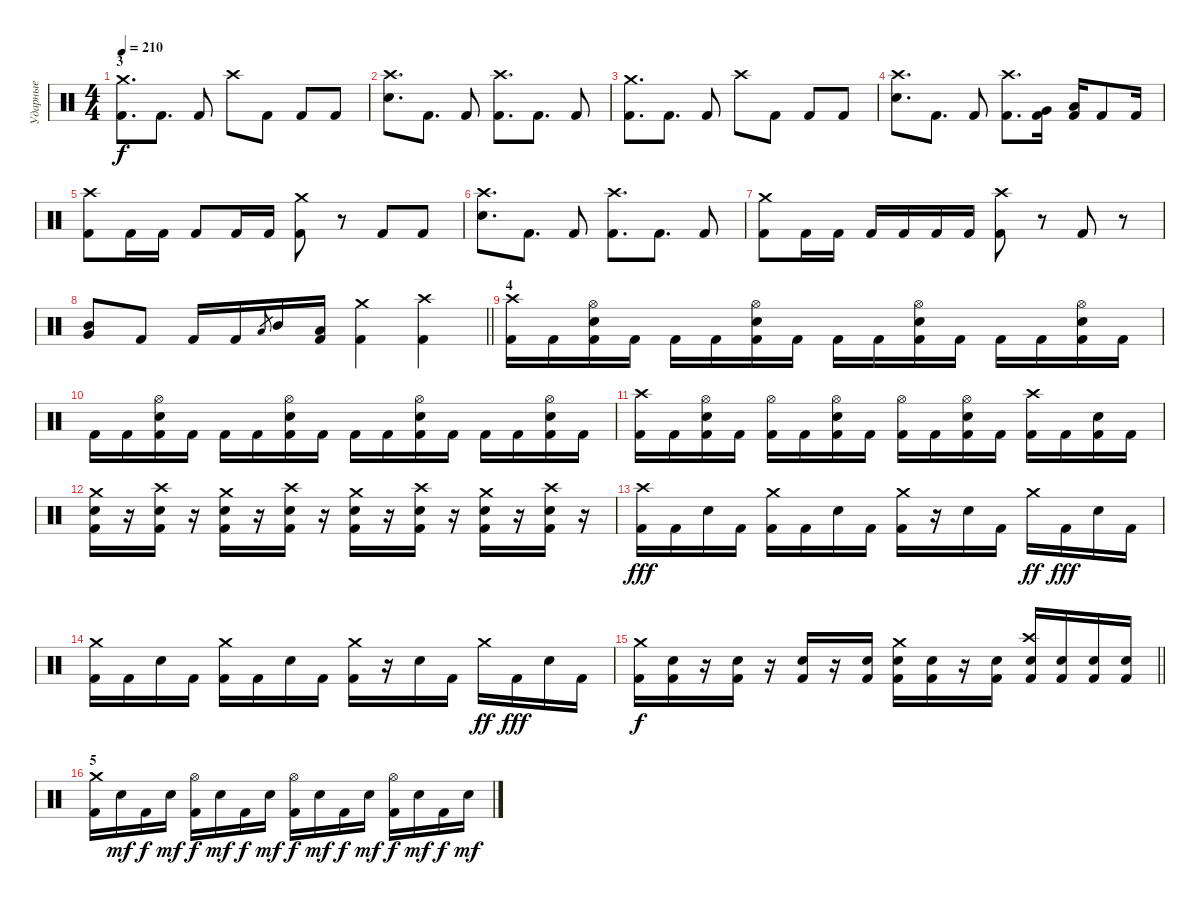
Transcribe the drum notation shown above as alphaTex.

\track ("Ударные" "Ударные") {instrument percussion}
\staff {score}
\articulation defaults
\ts (4 4)
\section ("" "3")
\tempo 210
\clef neutral
\ks c
("Crash medium (hit)" "Kick (hit) 2").8{d dy f} "Kick (hit) 2".8{d} "Kick (hit) 2".8 "Crash high (hit)".8 "Kick (hit) 2".8 "Kick (hit) 2".8 "Kick (hit) 2".8 |
("Crash high (hit)" "Snare (hit) 2").8{d} "Kick (hit) 2".8{d} "Kick (hit) 2".8 ("Crash high (hit)" "Kick (hit) 2").8{d} "Kick (hit) 2".8{d} "Kick (hit) 2".8 |
("Crash medium (hit)" "Kick (hit) 2").8{d} "Kick (hit) 2".8{d} "Kick (hit) 2".8 "Crash high (hit)".8 "Kick (hit) 2".8 "Kick (hit) 2".8 "Kick (hit) 2".8 |
("Crash high (hit)" "Snare (hit) 2").8{d} "Kick (hit) 2".8{d} "Kick (hit) 2".8 ("Crash high (hit)" "Kick (hit) 2").8{d} ("Very Low Tom (hit)" "Kick (hit) 2").16 ("Low Floor Tom (hit)" "Kick (hit) 2").16 "Kick (hit) 2".8 "Kick (hit) 2".16 |
("Crash high (hit)" "Kick (hit) 2").8 "Kick (hit) 2".16 "Kick (hit) 2".16 "Kick (hit) 2".8 "Kick (hit) 2".16 "Kick (hit) 2".16 ("Crash medium (hit)" "Kick (hit) 2").8 r.8 "Kick (hit) 2".8 "Kick (hit) 2".8 |
("Crash high (hit)" "Snare (hit) 2").8{d} "Kick (hit) 2".8{d} "Kick (hit) 2".8 ("Crash high (hit)" "Kick (hit) 2").8{d} "Kick (hit) 2".8{d} "Kick (hit) 2".8 |
("Crash medium (hit)" "Kick (hit) 2").8 "Kick (hit) 2".16 "Kick (hit) 2".16 "Kick (hit) 2".16 "Kick (hit) 2".16 "Kick (hit) 2".16 "Kick (hit) 2".16 ("Crash high (hit)" "Kick (hit) 2").8 r.8 "Kick (hit) 2".8 r.8 |
\barLineRight lightlight
("Mid Tom (hit)" "Very Low Tom (hit)").8 "Kick (hit) 2".8 "Kick (hit) 2".16 "Kick (hit) 2".16 "Low Tom (hit)".8{gr} "Mid Tom (hit)".16 ("Low Tom (hit)" "Kick (hit) 2").16 ("Crash medium (hit)" "Kick (hit) 2").4 ("Crash high (hit)" "Kick (hit) 2").4 |
\section ("" "4")
("Crash high (hit)" "Kick (hit) 2").16 "Kick (hit) 2".16 ("Hi-Hat (open)" "Snare (hit) 2" "Kick (hit) 2").16 "Kick (hit) 2".16 "Kick (hit) 2".16 "Kick (hit) 2".16 ("Hi-Hat (open)" "Snare (hit) 2" "Kick (hit) 2").16 "Kick (hit) 2".16 "Kick (hit) 2".16 "Kick (hit) 2".16 ("Hi-Hat (open)" "Snare (hit) 2" "Kick (hit) 2").16 "Kick (hit) 2".16 "Kick (hit) 2".16 "Kick (hit) 2".16 ("Hi-Hat (open)" "Snare (hit) 2" "Kick (hit) 2").16 "Kick (hit) 2".16 |
"Kick (hit) 2".16 "Kick (hit) 2".16 ("Hi-Hat (open)" "Snare (hit) 2" "Kick (hit) 2").16 "Kick (hit) 2".16 "Kick (hit) 2".16 "Kick (hit) 2".16 ("Hi-Hat (open)" "Snare (hit) 2" "Kick (hit) 2").16 "Kick (hit) 2".16 "Kick (hit) 2".16 "Kick (hit) 2".16 ("Hi-Hat (open)" "Snare (hit) 2" "Kick (hit) 2").16 "Kick (hit) 2".16 "Kick (hit) 2".16 "Kick (hit) 2".16 ("Hi-Hat (open)" "Snare (hit) 2" "Kick (hit) 2").16 "Kick (hit) 2".16 |
("Crash high (hit)" "Kick (hit) 2").16 "Kick (hit) 2".16 ("Hi-Hat (open)" "Snare (hit) 2" "Kick (hit) 2").16 "Kick (hit) 2".16 ("Hi-Hat (open)" "Kick (hit) 2").16 "Kick (hit) 2".16 ("Hi-Hat (open)" "Snare (hit) 2" "Kick (hit) 2").16 "Kick (hit) 2".16 ("Hi-Hat (open)" "Kick (hit) 2").16 "Kick (hit) 2".16 ("Hi-Hat (open)" "Snare (hit) 2" "Kick (hit) 2").16 "Kick (hit) 2".16 ("Crash high (hit)" "Kick (hit) 2").16 "Kick (hit) 2".16 ("Snare (hit) 2" "Kick (hit) 2").16 "Kick (hit) 2".16 |
("Crash medium (hit)" "Snare (hit) 2" "Kick (hit) 2").16 r.16 ("Crash high (hit)" "Snare (hit) 2" "Kick (hit) 2").16 r.16 ("Crash medium (hit)" "Snare (hit) 2" "Kick (hit) 2").16 r.16 ("Crash high (hit)" "Snare (hit) 2" "Kick (hit) 2").16 r.16 ("Crash medium (hit)" "Snare (hit) 2" "Kick (hit) 2").16 r.16 ("Crash high (hit)" "Snare (hit) 2" "Kick (hit) 2").16 r.16 ("Crash medium (hit)" "Snare (hit) 2" "Kick (hit) 2").16 r.16 ("Crash high (hit)" "Snare (hit) 2" "Kick (hit) 2").16 r.16 |
("Crash high (hit)" "Kick (hit) 2").16{dy fff} "Kick (hit) 2".16 "Snare (hit) 2".16 "Kick (hit) 2".16 ("Crash medium (hit)" "Kick (hit) 2").16 "Kick (hit) 2".16 "Snare (hit) 2".16 "Kick (hit) 2".16 ("Crash medium (hit)" "Kick (hit) 2").16 r.16 "Snare (hit) 2".16 "Kick (hit) 2".16 "Crash medium (hit)".16{dy ff} "Kick (hit) 2".16{dy fff} "Snare (hit) 2".16 "Kick (hit) 2".16 |
("Crash medium (hit)" "Kick (hit) 2").16 "Kick (hit) 2".16 "Snare (hit) 2".16 "Kick (hit) 2".16 ("Crash medium (hit)" "Kick (hit) 2").16 "Kick (hit) 2".16 "Snare (hit) 2".16 "Kick (hit) 2".16 ("Crash medium (hit)" "Kick (hit) 2").16 r.16 "Snare (hit) 2".16 "Kick (hit) 2".16 "Crash medium (hit)".16{dy ff} "Kick (hit) 2".16{dy fff} "Snare (hit) 2".16 "Kick (hit) 2".16 |
\barLineRight lightlight
("Crash medium (hit)" "Kick (hit) 2").16{dy f} ("Snare (hit) 2" "Kick (hit) 2").16 r.16 ("Snare (hit) 2" "Kick (hit) 2").16 r.16 ("Snare (hit) 2" "Kick (hit) 2").16 r.16 ("Snare (hit) 2" "Kick (hit) 2").16 ("Crash medium (hit)" "Snare (hit) 2" "Kick (hit) 2").16 ("Snare (hit) 2" "Kick (hit) 2").16 r.16 ("Snare (hit) 2" "Kick (hit) 2").16 ("Crash high (hit)" "Snare (hit) 2" "Kick (hit) 2").16 ("Snare (hit) 2" "Kick (hit) 2").16 ("Snare (hit) 2" "Kick (hit) 2").16 ("Snare (hit) 2" "Kick (hit) 2").16 |
\section ("" "5")
("Crash medium (hit)" "Kick (hit) 2").16 "Snare (hit) 2".16{dy mf} "Kick (hit) 2".16{dy f} "Snare (hit) 2".16{dy mf} ("Hi-Hat (open)" "Kick (hit) 2").16{dy f} "Snare (hit) 2".16{dy mf} "Kick (hit) 2".16{dy f} "Snare (hit) 2".16{dy mf} ("Hi-Hat (open)" "Kick (hit) 2").16{dy f} "Snare (hit) 2".16{dy mf} "Kick (hit) 2".16{dy f} "Snare (hit) 2".16{dy mf} ("Hi-Hat (open)" "Kick (hit) 2").16{dy f} "Snare (hit) 2".16{dy mf} "Kick (hit) 2".16{dy f} "Snare (hit) 2".16{dy mf}
